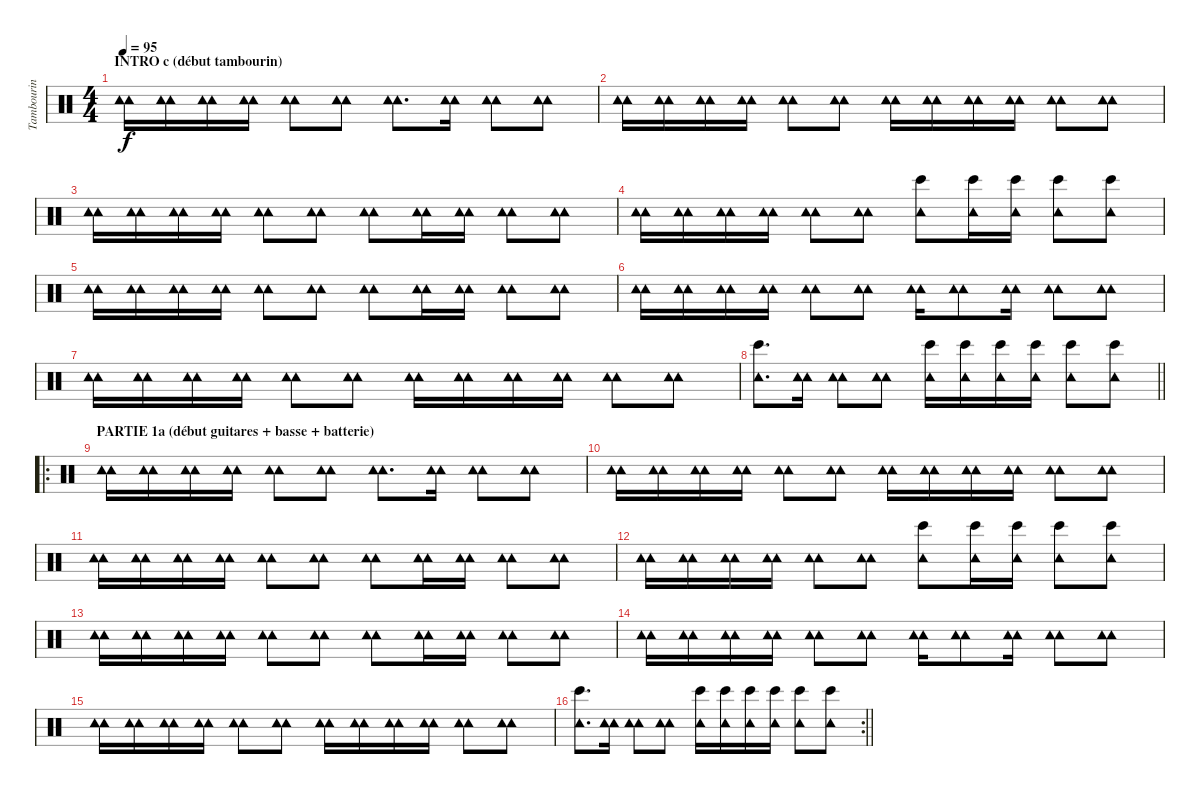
\track ("Tambourin" "Tambourin") {instrument percussion}
\staff {score}
\articulation defaults
\ts (4 4)
\section ("" "INTRO c (début tambourin)")
\tempo 95
\clef neutral
\ks c
("Tambourine (hit)" "Tambourine (hit)").16{dy f} ("Tambourine (hit)" "Tambourine (hit)").16 ("Tambourine (hit)" "Tambourine (hit)").16 ("Tambourine (hit)" "Tambourine (hit)").16 ("Tambourine (hit)" "Tambourine (hit)").8 ("Tambourine (hit)" "Tambourine (hit)").8 ("Tambourine (hit)" "Tambourine (hit)").8{d} ("Tambourine (hit)" "Tambourine (hit)").16 ("Tambourine (hit)" "Tambourine (hit)").8 ("Tambourine (hit)" "Tambourine (hit)").8 |
("Tambourine (hit)" "Tambourine (hit)").16 ("Tambourine (hit)" "Tambourine (hit)").16 ("Tambourine (hit)" "Tambourine (hit)").16 ("Tambourine (hit)" "Tambourine (hit)").16 ("Tambourine (hit)" "Tambourine (hit)").8 ("Tambourine (hit)" "Tambourine (hit)").8 ("Tambourine (hit)" "Tambourine (hit)").16 ("Tambourine (hit)" "Tambourine (hit)").16 ("Tambourine (hit)" "Tambourine (hit)").16 ("Tambourine (hit)" "Tambourine (hit)").16 ("Tambourine (hit)" "Tambourine (hit)").8 ("Tambourine (hit)" "Tambourine (hit)").8 |
("Tambourine (hit)" "Tambourine (hit)").16 ("Tambourine (hit)" "Tambourine (hit)").16 ("Tambourine (hit)" "Tambourine (hit)").16 ("Tambourine (hit)" "Tambourine (hit)").16 ("Tambourine (hit)" "Tambourine (hit)").8 ("Tambourine (hit)" "Tambourine (hit)").8 ("Tambourine (hit)" "Tambourine (hit)").8 ("Tambourine (hit)" "Tambourine (hit)").16 ("Tambourine (hit)" "Tambourine (hit)").16 ("Tambourine (hit)" "Tambourine (hit)").8 ("Tambourine (hit)" "Tambourine (hit)").8 |
("Tambourine (hit)" "Tambourine (hit)").16 ("Tambourine (hit)" "Tambourine (hit)").16 ("Tambourine (hit)" "Tambourine (hit)").16 ("Tambourine (hit)" "Tambourine (hit)").16 ("Tambourine (hit)" "Tambourine (hit)").8 ("Tambourine (hit)" "Tambourine (hit)").8 ("Tambourine (hit)" "Bongo High (hit)").8 ("Tambourine (hit)" "Bongo High (hit)").16 ("Tambourine (hit)" "Bongo High (hit)").16 ("Tambourine (hit)" "Bongo High (hit)").8 ("Tambourine (hit)" "Bongo High (hit)").8 |
("Tambourine (hit)" "Tambourine (hit)").16 ("Tambourine (hit)" "Tambourine (hit)").16 ("Tambourine (hit)" "Tambourine (hit)").16 ("Tambourine (hit)" "Tambourine (hit)").16 ("Tambourine (hit)" "Tambourine (hit)").8 ("Tambourine (hit)" "Tambourine (hit)").8 ("Tambourine (hit)" "Tambourine (hit)").8 ("Tambourine (hit)" "Tambourine (hit)").16 ("Tambourine (hit)" "Tambourine (hit)").16 ("Tambourine (hit)" "Tambourine (hit)").8 ("Tambourine (hit)" "Tambourine (hit)").8 |
("Tambourine (hit)" "Tambourine (hit)").16 ("Tambourine (hit)" "Tambourine (hit)").16 ("Tambourine (hit)" "Tambourine (hit)").16 ("Tambourine (hit)" "Tambourine (hit)").16 ("Tambourine (hit)" "Tambourine (hit)").8 ("Tambourine (hit)" "Tambourine (hit)").8 ("Tambourine (hit)" "Tambourine (hit)").16 ("Tambourine (hit)" "Tambourine (hit)").8 ("Tambourine (hit)" "Tambourine (hit)").16 ("Tambourine (hit)" "Tambourine (hit)").8 ("Tambourine (hit)" "Tambourine (hit)").8 |
("Tambourine (hit)" "Tambourine (hit)").16 ("Tambourine (hit)" "Tambourine (hit)").16 ("Tambourine (hit)" "Tambourine (hit)").16 ("Tambourine (hit)" "Tambourine (hit)").16 ("Tambourine (hit)" "Tambourine (hit)").8 ("Tambourine (hit)" "Tambourine (hit)").8 ("Tambourine (hit)" "Tambourine (hit)").16 ("Tambourine (hit)" "Tambourine (hit)").16 ("Tambourine (hit)" "Tambourine (hit)").16 ("Tambourine (hit)" "Tambourine (hit)").16 ("Tambourine (hit)" "Tambourine (hit)").8 ("Tambourine (hit)" "Tambourine (hit)").8 |
\barLineRight lightlight
("Tambourine (hit)" "Bongo High (hit)").8{d} ("Tambourine (hit)" "Tambourine (hit)").16 ("Tambourine (hit)" "Tambourine (hit)").8 ("Tambourine (hit)" "Tambourine (hit)").8 ("Tambourine (hit)" "Bongo High (hit)").16 ("Tambourine (hit)" "Bongo High (hit)").16 ("Tambourine (hit)" "Bongo High (hit)").16 ("Tambourine (hit)" "Bongo High (hit)").16 ("Tambourine (hit)" "Bongo High (hit)").8 ("Tambourine (hit)" "Bongo High (hit)").8 |
\ro
\section ("" "PARTIE 1a (début guitares + basse + batterie)")
("Tambourine (hit)" "Tambourine (hit)").16 ("Tambourine (hit)" "Tambourine (hit)").16 ("Tambourine (hit)" "Tambourine (hit)").16 ("Tambourine (hit)" "Tambourine (hit)").16 ("Tambourine (hit)" "Tambourine (hit)").8 ("Tambourine (hit)" "Tambourine (hit)").8 ("Tambourine (hit)" "Tambourine (hit)").8{d} ("Tambourine (hit)" "Tambourine (hit)").16 ("Tambourine (hit)" "Tambourine (hit)").8 ("Tambourine (hit)" "Tambourine (hit)").8 |
("Tambourine (hit)" "Tambourine (hit)").16 ("Tambourine (hit)" "Tambourine (hit)").16 ("Tambourine (hit)" "Tambourine (hit)").16 ("Tambourine (hit)" "Tambourine (hit)").16 ("Tambourine (hit)" "Tambourine (hit)").8 ("Tambourine (hit)" "Tambourine (hit)").8 ("Tambourine (hit)" "Tambourine (hit)").16 ("Tambourine (hit)" "Tambourine (hit)").16 ("Tambourine (hit)" "Tambourine (hit)").16 ("Tambourine (hit)" "Tambourine (hit)").16 ("Tambourine (hit)" "Tambourine (hit)").8 ("Tambourine (hit)" "Tambourine (hit)").8 |
("Tambourine (hit)" "Tambourine (hit)").16 ("Tambourine (hit)" "Tambourine (hit)").16 ("Tambourine (hit)" "Tambourine (hit)").16 ("Tambourine (hit)" "Tambourine (hit)").16 ("Tambourine (hit)" "Tambourine (hit)").8 ("Tambourine (hit)" "Tambourine (hit)").8 ("Tambourine (hit)" "Tambourine (hit)").8 ("Tambourine (hit)" "Tambourine (hit)").16 ("Tambourine (hit)" "Tambourine (hit)").16 ("Tambourine (hit)" "Tambourine (hit)").8 ("Tambourine (hit)" "Tambourine (hit)").8 |
("Tambourine (hit)" "Tambourine (hit)").16 ("Tambourine (hit)" "Tambourine (hit)").16 ("Tambourine (hit)" "Tambourine (hit)").16 ("Tambourine (hit)" "Tambourine (hit)").16 ("Tambourine (hit)" "Tambourine (hit)").8 ("Tambourine (hit)" "Tambourine (hit)").8 ("Tambourine (hit)" "Bongo High (hit)").8 ("Tambourine (hit)" "Bongo High (hit)").16 ("Tambourine (hit)" "Bongo High (hit)").16 ("Tambourine (hit)" "Bongo High (hit)").8 ("Tambourine (hit)" "Bongo High (hit)").8 |
("Tambourine (hit)" "Tambourine (hit)").16 ("Tambourine (hit)" "Tambourine (hit)").16 ("Tambourine (hit)" "Tambourine (hit)").16 ("Tambourine (hit)" "Tambourine (hit)").16 ("Tambourine (hit)" "Tambourine (hit)").8 ("Tambourine (hit)" "Tambourine (hit)").8 ("Tambourine (hit)" "Tambourine (hit)").8 ("Tambourine (hit)" "Tambourine (hit)").16 ("Tambourine (hit)" "Tambourine (hit)").16 ("Tambourine (hit)" "Tambourine (hit)").8 ("Tambourine (hit)" "Tambourine (hit)").8 |
("Tambourine (hit)" "Tambourine (hit)").16 ("Tambourine (hit)" "Tambourine (hit)").16 ("Tambourine (hit)" "Tambourine (hit)").16 ("Tambourine (hit)" "Tambourine (hit)").16 ("Tambourine (hit)" "Tambourine (hit)").8 ("Tambourine (hit)" "Tambourine (hit)").8 ("Tambourine (hit)" "Tambourine (hit)").16 ("Tambourine (hit)" "Tambourine (hit)").8 ("Tambourine (hit)" "Tambourine (hit)").16 ("Tambourine (hit)" "Tambourine (hit)").8 ("Tambourine (hit)" "Tambourine (hit)").8 |
("Tambourine (hit)" "Tambourine (hit)").16 ("Tambourine (hit)" "Tambourine (hit)").16 ("Tambourine (hit)" "Tambourine (hit)").16 ("Tambourine (hit)" "Tambourine (hit)").16 ("Tambourine (hit)" "Tambourine (hit)").8 ("Tambourine (hit)" "Tambourine (hit)").8 ("Tambourine (hit)" "Tambourine (hit)").16 ("Tambourine (hit)" "Tambourine (hit)").16 ("Tambourine (hit)" "Tambourine (hit)").16 ("Tambourine (hit)" "Tambourine (hit)").16 ("Tambourine (hit)" "Tambourine (hit)").8 ("Tambourine (hit)" "Tambourine (hit)").8 |
\rc 2
\barLineRight lightlight
("Tambourine (hit)" "Bongo High (hit)").8{d} ("Tambourine (hit)" "Tambourine (hit)").16 ("Tambourine (hit)" "Tambourine (hit)").8 ("Tambourine (hit)" "Tambourine (hit)").8 ("Tambourine (hit)" "Bongo High (hit)").16 ("Tambourine (hit)" "Bongo High (hit)").16 ("Tambourine (hit)" "Bongo High (hit)").16 ("Tambourine (hit)" "Bongo High (hit)").16 ("Tambourine (hit)" "Bongo High (hit)").8 ("Tambourine (hit)" "Bongo High (hit)").8
